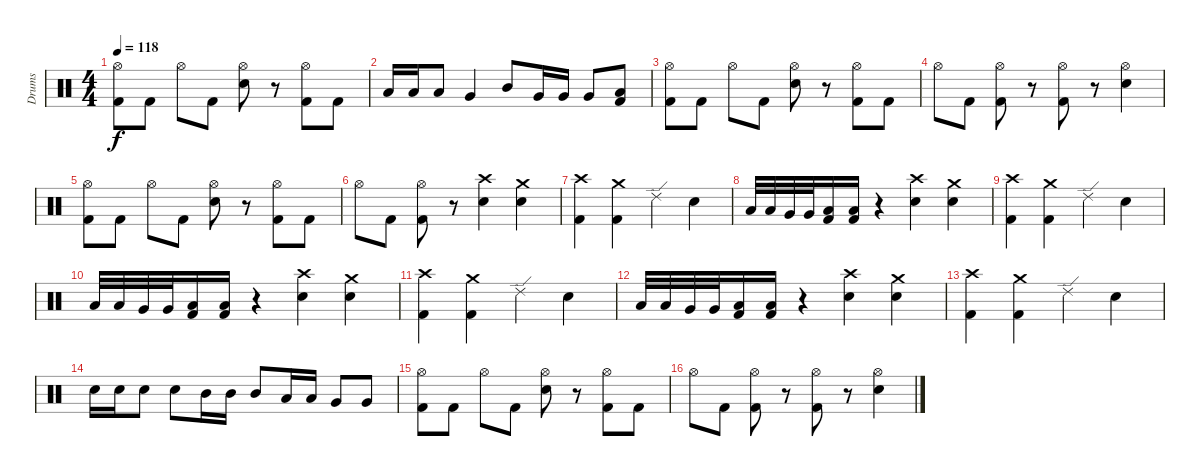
\track ("Drums" "Drums") {instrument percussion}
\staff {score}
\articulation defaults
\ts (4 4)
\tempo 118
\clef neutral
\ks c
("Hi-Hat (open)" "Kick (hit) 2").8{dy f} "Kick (hit) 2".8 "Hi-Hat (open)".8 "Kick (hit) 2".8 ("Hi-Hat (open)" "Electric Snare (hit)").8 r.8 ("Hi-Hat (open)" "Kick (hit) 2").8 "Kick (hit) 2".8 |
"Low Tom (hit)".16 "Low Tom (hit)".16 "Low Tom (hit)".8 "Very Low Tom (hit)".4 "Mid Tom (hit)".8 "Very Low Tom (hit)".16 "Very Low Tom (hit)".16 "Very Low Tom (hit)".8 ("Low Floor Tom (hit)" "Kick (hit) 2").8 |
("Hi-Hat (open)" "Kick (hit) 2").8 "Kick (hit) 2".8 "Hi-Hat (open)".8 "Kick (hit) 2".8 ("Hi-Hat (open)" "Electric Snare (hit)").8 r.8 ("Hi-Hat (open)" "Kick (hit) 2").8 "Kick (hit) 2".8 |
"Hi-Hat (open)".8 "Kick (hit) 2".8 ("Hi-Hat (open)" "Kick (hit) 2").8 r.8 ("Hi-Hat (open)" "Kick (hit) 2").8 r.8 ("Hi-Hat (open)" "Electric Snare (hit)").4 |
("Hi-Hat (open)" "Kick (hit) 2").8 "Kick (hit) 2".8 "Hi-Hat (open)".8 "Kick (hit) 2".8 ("Hi-Hat (open)" "Electric Snare (hit)").8 r.8 ("Hi-Hat (open)" "Kick (hit) 2").8 "Kick (hit) 2".8 |
"Hi-Hat (open)".8 "Kick (hit) 2".8 ("Hi-Hat (open)" "Kick (hit) 2").8 r.8 ("Crash high (hit)" "Electric Snare (hit)").4 ("Crash medium (hit)" "Electric Snare (hit)").4 |
("Crash high (hit)" "Kick (hit) 2").4 ("Crash medium (hit)" "Kick (hit) 2").4 "Ride (edge) 2".4 "Electric Snare (hit)".4 |
"Low Tom (hit)".32 "Low Tom (hit)".32 "Very Low Tom (hit)".32 "Very Low Tom (hit)".32 ("Low Floor Tom (hit)" "Kick (hit) 2").16 ("Low Floor Tom (hit)" "Kick (hit) 2").16 r.4 ("Crash high (hit)" "Electric Snare (hit)").4 ("Crash medium (hit)" "Electric Snare (hit)").4 |
("Crash high (hit)" "Kick (hit) 2").4 ("Crash medium (hit)" "Kick (hit) 2").4 "Ride (edge) 2".4 "Electric Snare (hit)".4 |
"Low Tom (hit)".32 "Low Tom (hit)".32 "Very Low Tom (hit)".32 "Very Low Tom (hit)".32 ("Low Floor Tom (hit)" "Kick (hit) 2").16 ("Low Floor Tom (hit)" "Kick (hit) 2").16 r.4 ("Crash high (hit)" "Electric Snare (hit)").4 ("Crash medium (hit)" "Electric Snare (hit)").4 |
("Crash high (hit)" "Kick (hit) 2").4 ("Crash medium (hit)" "Kick (hit) 2").4 "Ride (edge) 2".4 "Electric Snare (hit)".4 |
"Low Tom (hit)".32 "Low Tom (hit)".32 "Very Low Tom (hit)".32 "Very Low Tom (hit)".32 ("Low Floor Tom (hit)" "Kick (hit) 2").16 ("Low Floor Tom (hit)" "Kick (hit) 2").16 r.4 ("Crash high (hit)" "Electric Snare (hit)").4 ("Crash medium (hit)" "Electric Snare (hit)").4 |
("Crash high (hit)" "Kick (hit) 2").4 ("Crash medium (hit)" "Kick (hit) 2").4 "Ride (edge) 2".4 "Electric Snare (hit)".4 |
"Electric Snare (hit)".16 "Electric Snare (hit)".16 "Electric Snare (hit)".8 "Electric Snare (hit)".8 "Mid Tom (hit)".16 "Mid Tom (hit)".16 "Mid Tom (hit)".8 "Low Tom (hit)".16 "Low Tom (hit)".16 "Very Low Tom (hit)".8 "Very Low Tom (hit)".8 |
("Hi-Hat (open)" "Kick (hit) 2").8 "Kick (hit) 2".8 "Hi-Hat (open)".8 "Kick (hit) 2".8 ("Hi-Hat (open)" "Electric Snare (hit)").8 r.8 ("Hi-Hat (open)" "Kick (hit) 2").8 "Kick (hit) 2".8 |
"Hi-Hat (open)".8 "Kick (hit) 2".8 ("Hi-Hat (open)" "Kick (hit) 2").8 r.8 ("Hi-Hat (open)" "Kick (hit) 2").8 r.8 ("Hi-Hat (open)" "Electric Snare (hit)").4
